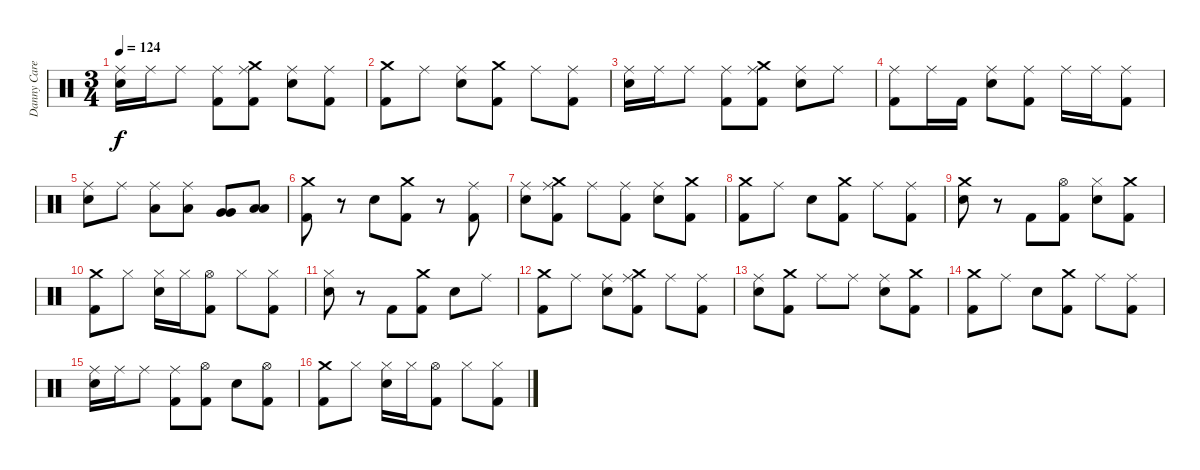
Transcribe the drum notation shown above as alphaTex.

\track ("Danny Carey" "Danny Care") {instrument percussion}
\staff {score}
\articulation defaults
\ts (3 4)
\tempo 124
\clef neutral
\ks c
("Ride (middle)" "Electric Snare (hit)").16{dy f} "Ride (middle)".16 "Ride (middle)".8 ("Ride (middle)" "Kick (hit) 2").8 ("Crash medium (hit)" "Ride (middle)" "Kick (hit) 2").8 ("Ride (middle)" "Electric Snare (hit)").8 ("Ride (middle)" "Kick (hit) 2").8 |
("Crash medium (hit)" "Kick (hit) 2").8 "Ride (middle)".8 ("Ride (middle)" "Electric Snare (hit)").8 ("Crash medium (hit)" "Kick (hit) 2").8 "Ride (middle)".8 ("Ride (middle)" "Kick (hit) 2").8 |
("Ride (middle)" "Electric Snare (hit)").16 "Ride (middle)".16 "Ride (middle)".8 ("Ride (middle)" "Kick (hit) 2").8 ("Crash medium (hit)" "Ride (middle)" "Kick (hit) 2").8 ("Ride (middle)" "Electric Snare (hit)").8 "Ride (middle)".8 |
("Ride (middle)" "Kick (hit) 2").8 "Ride (middle)".16 "Kick (hit) 2".16 ("Ride (middle)" "Electric Snare (hit)").8 ("Ride (middle)" "Kick (hit) 2").8 "Ride (middle)".16 "Ride (middle)".16 ("Ride (middle)" "Kick (hit) 2").8 |
("Ride (middle)" "Electric Snare (hit)").8 "Ride (middle)".8 ("Ride (middle)" "Low Tom (hit)").8 ("Ride (middle)" "Low Tom (hit)").8 ("Very Low Tom (hit)" "Very Low Tom (hit)").8 ("Low Floor Tom (hit)" "Low Floor Tom (hit)").8 |
("Crash medium (hit)" "Kick (hit) 2").8 r.8 "Electric Snare (hit)".8 ("Crash medium (hit)" "Kick (hit) 2").8 r.8 ("Ride (middle)" "Kick (hit) 2").8 |
("Ride (middle)" "Electric Snare (hit)").8 ("Crash medium (hit)" "Ride (middle)" "Kick (hit) 2").8 "Ride (middle)".8 ("Ride (middle)" "Kick (hit) 2").8 ("Ride (middle)" "Electric Snare (hit)").8 ("Crash medium (hit)" "Kick (hit) 2").8 |
("Crash medium (hit)" "Kick (hit) 2").8 "Ride (middle)".8 "Electric Snare (hit)".8 ("Crash medium (hit)" "Kick (hit) 2").8 "Ride (middle)".8 ("Ride (middle)" "Kick (hit) 2").8 |
("Crash medium (hit)" "Electric Snare (hit)").8 r.8 "Kick (hit) 2".8 ("Hi-Hat (open)" "Kick (hit) 2").8 ("Hi-Hat (closed)" "Electric Snare (hit)").8 ("Crash medium (hit)" "Kick (hit) 2").8 |
("Crash medium (hit)" "Kick (hit) 2").8 "Hi-Hat (closed)".8 ("Hi-Hat (closed)" "Electric Snare (hit)").16 "Hi-Hat (closed)".16 ("Hi-Hat (open)" "Kick (hit) 2").8 "Hi-Hat (closed)".8 ("Hi-Hat (closed)" "Kick (hit) 2").8 |
("Hi-Hat (closed)" "Electric Snare (hit)").8 r.8 "Kick (hit) 2".8 ("Crash medium (hit)" "Kick (hit) 2").8 "Electric Snare (hit)".8 "Ride (middle)".8 |
("Crash medium (hit)" "Kick (hit) 2").8 "Ride (middle)".8 ("Ride (middle)" "Electric Snare (hit)").8 ("Crash medium (hit)" "Ride (middle)" "Kick (hit) 2").8 "Ride (middle)".8 ("Ride (middle)" "Kick (hit) 2").8 |
("Ride (middle)" "Electric Snare (hit)").8 ("Crash medium (hit)" "Kick (hit) 2").8 "Ride (middle)".8 "Ride (middle)".8 ("Ride (middle)" "Electric Snare (hit)").8 ("Crash medium (hit)" "Kick (hit) 2").8 |
("Crash medium (hit)" "Kick (hit) 2").8 "Ride (middle)".8 "Electric Snare (hit)".8 ("Crash medium (hit)" "Kick (hit) 2").8 "Ride (middle)".8 ("Ride (middle)" "Kick (hit) 2").8 |
("Ride (middle)" "Electric Snare (hit)").16 "Ride (middle)".16 "Ride (middle)".8 ("Ride (middle)" "Kick (hit) 2").8 ("Hi-Hat (open)" "Kick (hit) 2").8 "Electric Snare (hit)".8 ("Hi-Hat (open)" "Kick (hit) 2").8 |
("Crash medium (hit)" "Kick (hit) 2").8 "Hi-Hat (closed)".8 ("Hi-Hat (closed)" "Electric Snare (hit)").16 "Hi-Hat (closed)".16 ("Hi-Hat (open)" "Kick (hit) 2").8 "Hi-Hat (closed)".8 ("Hi-Hat (closed)" "Kick (hit) 2").8
